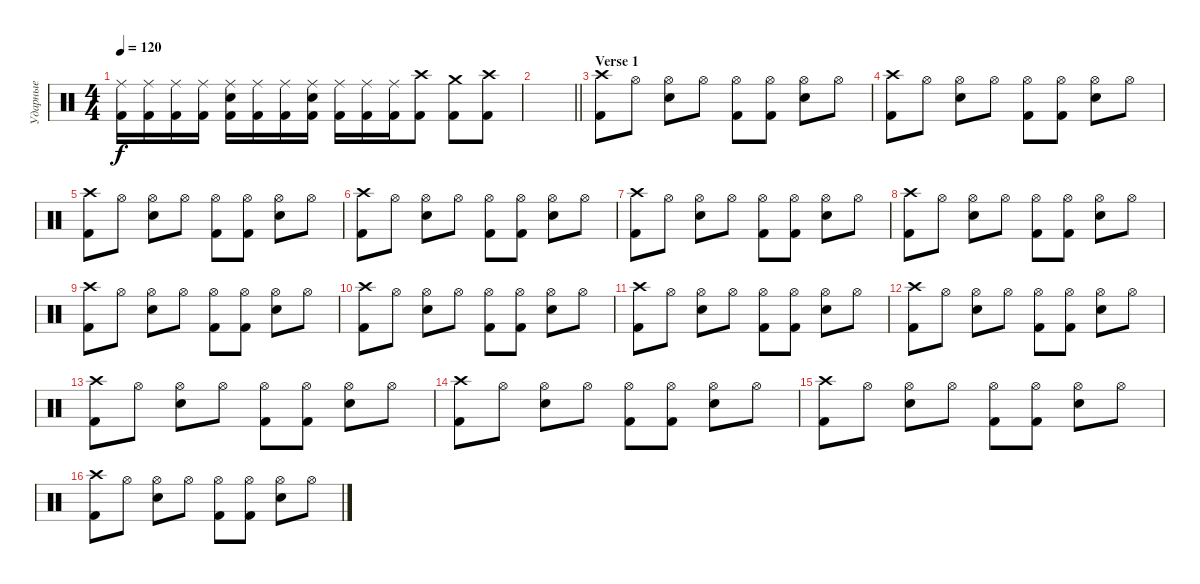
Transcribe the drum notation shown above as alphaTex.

\track ("Ударные" "Ударные") {instrument percussion}
\staff {score}
\articulation defaults
\ts (4 4)
\tempo 120
\clef neutral
\ks c
("Kick (hit) 2" "Ride (middle)").16{dy f} ("Kick (hit) 2" "Ride (middle)").16 ("Kick (hit) 2" "Ride (middle)").16 ("Kick (hit) 2" "Ride (middle)").16 ("Kick (hit) 2" "Electric Snare (hit)" "Ride (middle)").16 ("Kick (hit) 2" "Ride (middle)").16 ("Kick (hit) 2" "Ride (middle)").16 ("Kick (hit) 2" "Electric Snare (hit)" "Ride (middle)").16 ("Kick (hit) 2" "Ride (middle)").16 ("Kick (hit) 2" "Ride (middle)").16 ("Kick (hit) 2" "Ride (middle)").16 ("Kick (hit) 2" "Crash high (hit)").8 ("Kick (hit) 2" "Crash medium (hit)").8 ("Kick (hit) 2" "Crash high (hit)").8 |
\barLineRight lightlight
|
\section ("" "Verse 1")
("Kick (hit) 2" "Crash high (hit)").8 "Hi-Hat (open)".8 ("Electric Snare (hit)" "Hi-Hat (open)").8 "Hi-Hat (open)".8 ("Kick (hit) 2" "Hi-Hat (open)").8 ("Kick (hit) 2" "Hi-Hat (open)").8 ("Electric Snare (hit)" "Hi-Hat (open)").8 "Hi-Hat (open)".8 |
("Kick (hit) 2" "Crash high (hit)").8 "Hi-Hat (open)".8 ("Electric Snare (hit)" "Hi-Hat (open)").8 "Hi-Hat (open)".8 ("Kick (hit) 2" "Hi-Hat (open)").8 ("Kick (hit) 2" "Hi-Hat (open)").8 ("Electric Snare (hit)" "Hi-Hat (open)").8 "Hi-Hat (open)".8 |
("Kick (hit) 2" "Crash high (hit)").8 "Hi-Hat (open)".8 ("Electric Snare (hit)" "Hi-Hat (open)").8 "Hi-Hat (open)".8 ("Kick (hit) 2" "Hi-Hat (open)").8 ("Kick (hit) 2" "Hi-Hat (open)").8 ("Electric Snare (hit)" "Hi-Hat (open)").8 "Hi-Hat (open)".8 |
("Kick (hit) 2" "Crash high (hit)").8 "Hi-Hat (open)".8 ("Electric Snare (hit)" "Hi-Hat (open)").8 "Hi-Hat (open)".8 ("Kick (hit) 2" "Hi-Hat (open)").8 ("Kick (hit) 2" "Hi-Hat (open)").8 ("Electric Snare (hit)" "Hi-Hat (open)").8 "Hi-Hat (open)".8 |
("Kick (hit) 2" "Crash high (hit)").8 "Hi-Hat (open)".8 ("Electric Snare (hit)" "Hi-Hat (open)").8 "Hi-Hat (open)".8 ("Kick (hit) 2" "Hi-Hat (open)").8 ("Kick (hit) 2" "Hi-Hat (open)").8 ("Electric Snare (hit)" "Hi-Hat (open)").8 "Hi-Hat (open)".8 |
("Kick (hit) 2" "Crash high (hit)").8 "Hi-Hat (open)".8 ("Electric Snare (hit)" "Hi-Hat (open)").8 "Hi-Hat (open)".8 ("Kick (hit) 2" "Hi-Hat (open)").8 ("Kick (hit) 2" "Hi-Hat (open)").8 ("Electric Snare (hit)" "Hi-Hat (open)").8 "Hi-Hat (open)".8 |
("Kick (hit) 2" "Crash high (hit)").8 "Hi-Hat (open)".8 ("Electric Snare (hit)" "Hi-Hat (open)").8 "Hi-Hat (open)".8 ("Kick (hit) 2" "Hi-Hat (open)").8 ("Kick (hit) 2" "Hi-Hat (open)").8 ("Electric Snare (hit)" "Hi-Hat (open)").8 "Hi-Hat (open)".8 |
("Kick (hit) 2" "Crash high (hit)").8 "Hi-Hat (open)".8 ("Electric Snare (hit)" "Hi-Hat (open)").8 "Hi-Hat (open)".8 ("Kick (hit) 2" "Hi-Hat (open)").8 ("Kick (hit) 2" "Hi-Hat (open)").8 ("Electric Snare (hit)" "Hi-Hat (open)").8 "Hi-Hat (open)".8 |
("Kick (hit) 2" "Crash high (hit)").8 "Hi-Hat (open)".8 ("Electric Snare (hit)" "Hi-Hat (open)").8 "Hi-Hat (open)".8 ("Kick (hit) 2" "Hi-Hat (open)").8 ("Kick (hit) 2" "Hi-Hat (open)").8 ("Electric Snare (hit)" "Hi-Hat (open)").8 "Hi-Hat (open)".8 |
("Kick (hit) 2" "Crash high (hit)").8 "Hi-Hat (open)".8 ("Electric Snare (hit)" "Hi-Hat (open)").8 "Hi-Hat (open)".8 ("Kick (hit) 2" "Hi-Hat (open)").8 ("Kick (hit) 2" "Hi-Hat (open)").8 ("Electric Snare (hit)" "Hi-Hat (open)").8 "Hi-Hat (open)".8 |
("Kick (hit) 2" "Crash high (hit)").8 "Hi-Hat (open)".8 ("Electric Snare (hit)" "Hi-Hat (open)").8 "Hi-Hat (open)".8 ("Kick (hit) 2" "Hi-Hat (open)").8 ("Kick (hit) 2" "Hi-Hat (open)").8 ("Electric Snare (hit)" "Hi-Hat (open)").8 "Hi-Hat (open)".8 |
("Kick (hit) 2" "Crash high (hit)").8 "Hi-Hat (open)".8 ("Electric Snare (hit)" "Hi-Hat (open)").8 "Hi-Hat (open)".8 ("Kick (hit) 2" "Hi-Hat (open)").8 ("Kick (hit) 2" "Hi-Hat (open)").8 ("Electric Snare (hit)" "Hi-Hat (open)").8 "Hi-Hat (open)".8 |
("Kick (hit) 2" "Crash high (hit)").8 "Hi-Hat (open)".8 ("Electric Snare (hit)" "Hi-Hat (open)").8 "Hi-Hat (open)".8 ("Kick (hit) 2" "Hi-Hat (open)").8 ("Kick (hit) 2" "Hi-Hat (open)").8 ("Electric Snare (hit)" "Hi-Hat (open)").8 "Hi-Hat (open)".8 |
("Kick (hit) 2" "Crash high (hit)").8 "Hi-Hat (open)".8 ("Electric Snare (hit)" "Hi-Hat (open)").8 "Hi-Hat (open)".8 ("Kick (hit) 2" "Hi-Hat (open)").8 ("Kick (hit) 2" "Hi-Hat (open)").8 ("Electric Snare (hit)" "Hi-Hat (open)").8 "Hi-Hat (open)".8
